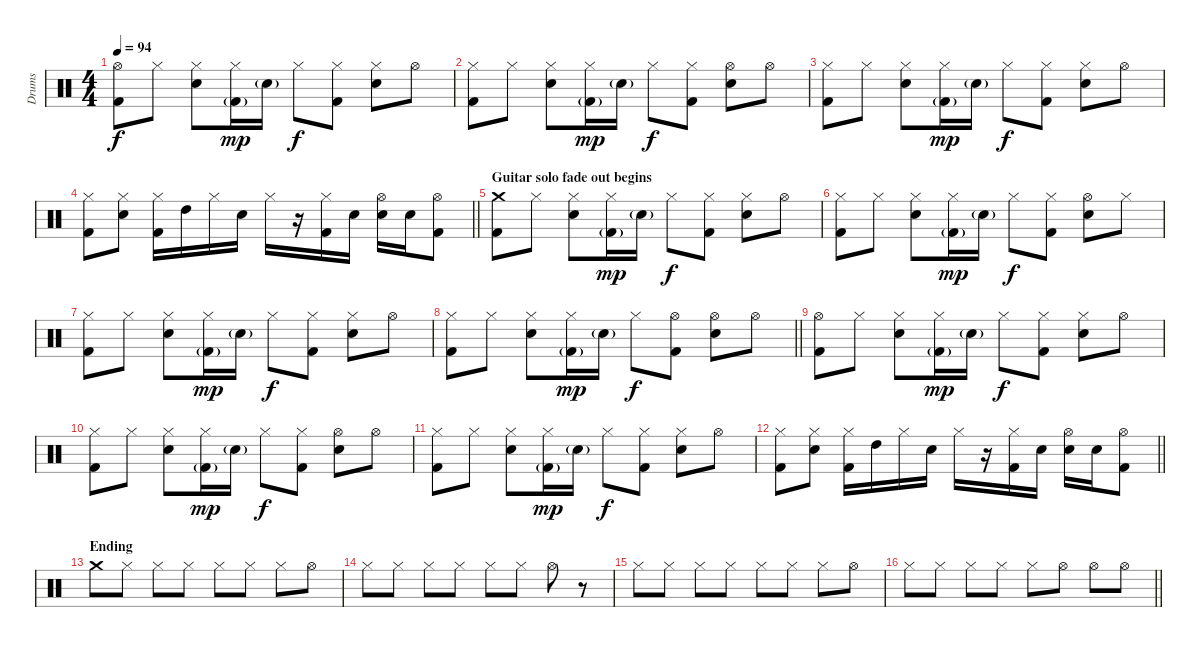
\track ("Drums" "Drums") {instrument percussion}
\staff {score}
\articulation defaults
\ts (4 4)
\tempo 94
\clef neutral
\ks c
("Hi-Hat (open)" "Kick (hit) 2").8{dy f} "Hi-Hat (closed)".8 ("Hi-Hat (closed)" "Electric Snare (hit)").8 ("Hi-Hat (closed)" "Kick (hit) 2"{g}).16{dy mp} "Electric Snare (hit)"{g}.16 "Hi-Hat (closed)".8{dy f} ("Hi-Hat (closed)" "Kick (hit) 2").8 ("Hi-Hat (closed)" "Electric Snare (hit)").8 "Hi-Hat (open)".8 |
("Hi-Hat (closed)" "Kick (hit) 2").8 "Hi-Hat (closed)".8 ("Hi-Hat (closed)" "Electric Snare (hit)").8 ("Hi-Hat (closed)" "Kick (hit) 2"{g}).16{dy mp} "Electric Snare (hit)"{g}.16 "Hi-Hat (closed)".8{dy f} ("Hi-Hat (closed)" "Kick (hit) 2").8 ("Hi-Hat (open)" "Electric Snare (hit)").8 "Hi-Hat (open)".8 |
("Hi-Hat (closed)" "Kick (hit) 2").8 "Hi-Hat (closed)".8 ("Hi-Hat (closed)" "Electric Snare (hit)").8 ("Hi-Hat (closed)" "Kick (hit) 2"{g}).16{dy mp} "Electric Snare (hit)"{g}.16 "Hi-Hat (closed)".8{dy f} ("Hi-Hat (closed)" "Kick (hit) 2").8 ("Hi-Hat (closed)" "Electric Snare (hit)").8 "Hi-Hat (open)".8 |
\barLineRight lightlight
("Hi-Hat (closed)" "Kick (hit) 2").8 ("Hi-Hat (closed)" "Electric Snare (hit)").8 ("Hi-Hat (closed)" "Kick (hit) 2").16 "High Tom (hit)".16 "Hi-Hat (closed)".16 "Electric Snare (hit)".16 "Hi-Hat (closed)".16 r.16 ("Hi-Hat (closed)" "Kick (hit) 2").16 "Electric Snare (hit)".16 ("Hi-Hat (open)" "Electric Snare (hit)").16 "Electric Snare (hit)".16 ("Hi-Hat (open)" "Kick (hit) 2").8 |
\section ("" "Guitar solo fade out begins")
("Crash medium (hit)" "Kick (hit) 2").8 "Hi-Hat (closed)".8 ("Hi-Hat (closed)" "Electric Snare (hit)").8 ("Hi-Hat (closed)" "Kick (hit) 2"{g}).16{dy mp} "Electric Snare (hit)"{g}.16 "Hi-Hat (closed)".8{dy f} ("Hi-Hat (closed)" "Kick (hit) 2").8 ("Hi-Hat (closed)" "Electric Snare (hit)").8 "Hi-Hat (open)".8 |
("Hi-Hat (closed)" "Kick (hit) 2").8 "Hi-Hat (closed)".8 ("Hi-Hat (closed)" "Electric Snare (hit)").8 ("Hi-Hat (closed)" "Kick (hit) 2"{g}).16{dy mp} "Electric Snare (hit)"{g}.16 "Hi-Hat (closed)".8{dy f} ("Hi-Hat (closed)" "Kick (hit) 2").8 ("Hi-Hat (open)" "Electric Snare (hit)").8 "Hi-Hat (closed)".8 |
("Hi-Hat (closed)" "Kick (hit) 2").8 "Hi-Hat (closed)".8 ("Hi-Hat (closed)" "Electric Snare (hit)").8 ("Hi-Hat (closed)" "Kick (hit) 2"{g}).16{dy mp} "Electric Snare (hit)"{g}.16 "Hi-Hat (closed)".8{dy f} ("Hi-Hat (closed)" "Kick (hit) 2").8 ("Hi-Hat (closed)" "Electric Snare (hit)").8 "Hi-Hat (open)".8 |
\barLineRight lightlight
("Hi-Hat (closed)" "Kick (hit) 2").8 "Hi-Hat (closed)".8 ("Hi-Hat (closed)" "Electric Snare (hit)").8 ("Hi-Hat (closed)" "Kick (hit) 2"{g}).16{dy mp} "Electric Snare (hit)"{g}.16 "Hi-Hat (closed)".8{dy f} ("Hi-Hat (open)" "Kick (hit) 2").8 ("Hi-Hat (open)" "Electric Snare (hit)").8 "Hi-Hat (open)".8 |
("Hi-Hat (open)" "Kick (hit) 2").8 "Hi-Hat (closed)".8 ("Hi-Hat (closed)" "Electric Snare (hit)").8 ("Hi-Hat (closed)" "Kick (hit) 2"{g}).16{dy mp} "Electric Snare (hit)"{g}.16 "Hi-Hat (closed)".8{dy f} ("Hi-Hat (closed)" "Kick (hit) 2").8 ("Hi-Hat (closed)" "Electric Snare (hit)").8 "Hi-Hat (open)".8 |
("Hi-Hat (closed)" "Kick (hit) 2").8 "Hi-Hat (closed)".8 ("Hi-Hat (closed)" "Electric Snare (hit)").8 ("Hi-Hat (closed)" "Kick (hit) 2"{g}).16{dy mp} "Electric Snare (hit)"{g}.16 "Hi-Hat (closed)".8{dy f} ("Hi-Hat (closed)" "Kick (hit) 2").8 ("Hi-Hat (open)" "Electric Snare (hit)").8 "Hi-Hat (open)".8 |
("Hi-Hat (closed)" "Kick (hit) 2").8 "Hi-Hat (closed)".8 ("Hi-Hat (closed)" "Electric Snare (hit)").8 ("Hi-Hat (closed)" "Kick (hit) 2"{g}).16{dy mp} "Electric Snare (hit)"{g}.16 "Hi-Hat (closed)".8{dy f} ("Hi-Hat (closed)" "Kick (hit) 2").8 ("Hi-Hat (closed)" "Electric Snare (hit)").8 "Hi-Hat (open)".8 |
\barLineRight lightlight
("Hi-Hat (closed)" "Kick (hit) 2").8 ("Hi-Hat (closed)" "Electric Snare (hit)").8 ("Hi-Hat (closed)" "Kick (hit) 2").16 "High Tom (hit)".16 "Hi-Hat (closed)".16 "Electric Snare (hit)".16 "Hi-Hat (closed)".16 r.16 ("Hi-Hat (closed)" "Kick (hit) 2").16 "Electric Snare (hit)".16 ("Hi-Hat (open)" "Electric Snare (hit)").16 "Electric Snare (hit)".16 ("Hi-Hat (open)" "Kick (hit) 2").8 |
\section ("" "Ending")
"Crash medium (hit)".8 "Hi-Hat (closed)".8 "Hi-Hat (closed)".8 "Hi-Hat (closed)".8 "Hi-Hat (closed)".8 "Hi-Hat (closed)".8 "Hi-Hat (closed)".8 "Hi-Hat (open)".8 |
"Hi-Hat (closed)".8 "Hi-Hat (closed)".8 "Hi-Hat (closed)".8 "Hi-Hat (closed)".8 "Hi-Hat (closed)".8 "Hi-Hat (closed)".8 "Hi-Hat (open)".8 r.8 |
"Hi-Hat (closed)".8 "Hi-Hat (closed)".8 "Hi-Hat (closed)".8 "Hi-Hat (closed)".8 "Hi-Hat (closed)".8 "Hi-Hat (closed)".8 "Hi-Hat (closed)".8 "Hi-Hat (open)".8 |
\barLineRight lightlight "Hi-Hat (closed)".8 "Hi-Hat (closed)".8 "Hi-Hat (closed)".8 "Hi-Hat (closed)".8 "Hi-Hat (closed)".8 "Hi-Hat (open)".8 "Hi-Hat (open)".8 "Hi-Hat (open)".8
